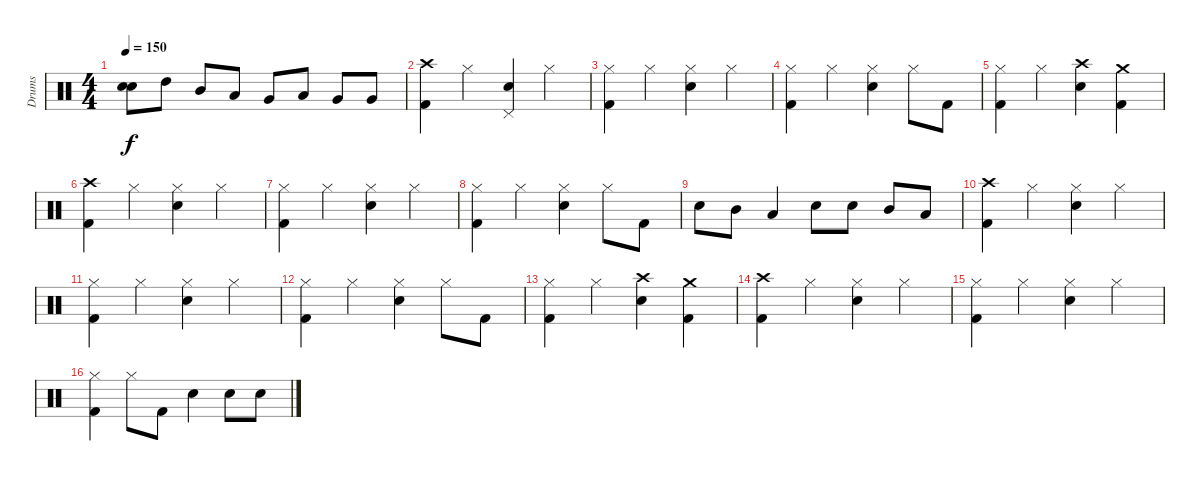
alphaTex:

\track ("Drums" "Drums") {instrument percussion}
\staff {score}
\articulation defaults
\ts (4 4)
\tempo 150
\clef neutral
\ks c
("Electric Snare (hit)" "Electric Snare (hit)").8{bd 120 dy f} "High Tom (hit)".8 "Mid Tom (hit)".8 "Low Tom (hit)".8 "Very Low Tom (hit)".8 "Low Tom (hit)".8 "Very Low Tom (hit)".8 "Very Low Tom (hit)".8 |
("Crash high (hit)" "Kick (hit) 2").4 "Hi-Hat (closed)".4 ("Pedal Hi-Hat (hit)" "Electric Snare (hit)").4 "Hi-Hat (closed)".4 |
("Hi-Hat (closed)" "Kick (hit) 2").4 "Hi-Hat (closed)".4 ("Hi-Hat (closed)" "Electric Snare (hit)").4 "Hi-Hat (closed)".4 |
("Hi-Hat (closed)" "Kick (hit) 2").4 "Hi-Hat (closed)".4 ("Hi-Hat (closed)" "Electric Snare (hit)").4 "Hi-Hat (closed)".8 "Kick (hit) 2".8 |
("Hi-Hat (closed)" "Kick (hit) 2").4 "Hi-Hat (closed)".4 ("Crash high (hit)" "Electric Snare (hit)").4 ("Crash medium (hit)" "Kick (hit) 2").4 |
("Crash high (hit)" "Kick (hit) 2").4 "Hi-Hat (closed)".4 ("Hi-Hat (closed)" "Electric Snare (hit)").4 "Hi-Hat (closed)".4 |
("Hi-Hat (closed)" "Kick (hit) 2").4 "Hi-Hat (closed)".4 ("Hi-Hat (closed)" "Electric Snare (hit)").4 "Hi-Hat (closed)".4 |
("Hi-Hat (closed)" "Kick (hit) 2").4 "Hi-Hat (closed)".4 ("Hi-Hat (closed)" "Electric Snare (hit)").4 "Hi-Hat (closed)".8 "Kick (hit) 2".8 |
"Electric Snare (hit)".8 "Mid Tom (hit)".8 "Low Tom (hit)".4 "Electric Snare (hit)".8 "Electric Snare (hit)".8 "Mid Tom (hit)".8 "Low Tom (hit)".8 |
("Crash high (hit)" "Kick (hit) 2").4 "Hi-Hat (closed)".4 ("Hi-Hat (closed)" "Electric Snare (hit)").4 "Hi-Hat (closed)".4 |
("Hi-Hat (closed)" "Kick (hit) 2").4 "Hi-Hat (closed)".4 ("Hi-Hat (closed)" "Electric Snare (hit)").4 "Hi-Hat (closed)".4 |
("Hi-Hat (closed)" "Kick (hit) 2").4 "Hi-Hat (closed)".4 ("Hi-Hat (closed)" "Electric Snare (hit)").4 "Hi-Hat (closed)".8 "Kick (hit) 2".8 |
("Hi-Hat (closed)" "Kick (hit) 2").4 "Hi-Hat (closed)".4 ("Crash high (hit)" "Electric Snare (hit)").4 ("Crash medium (hit)" "Kick (hit) 2").4 |
("Crash high (hit)" "Kick (hit) 2").4 "Hi-Hat (closed)".4 ("Hi-Hat (closed)" "Electric Snare (hit)").4 "Hi-Hat (closed)".4 |
("Hi-Hat (closed)" "Kick (hit) 2").4 "Hi-Hat (closed)".4 ("Hi-Hat (closed)" "Electric Snare (hit)").4 "Hi-Hat (closed)".4 |
("Hi-Hat (closed)" "Kick (hit) 2").4 "Hi-Hat (closed)".8 "Kick (hit) 2".8 "Electric Snare (hit)".4 "Electric Snare (hit)".8 "Electric Snare (hit)".8
